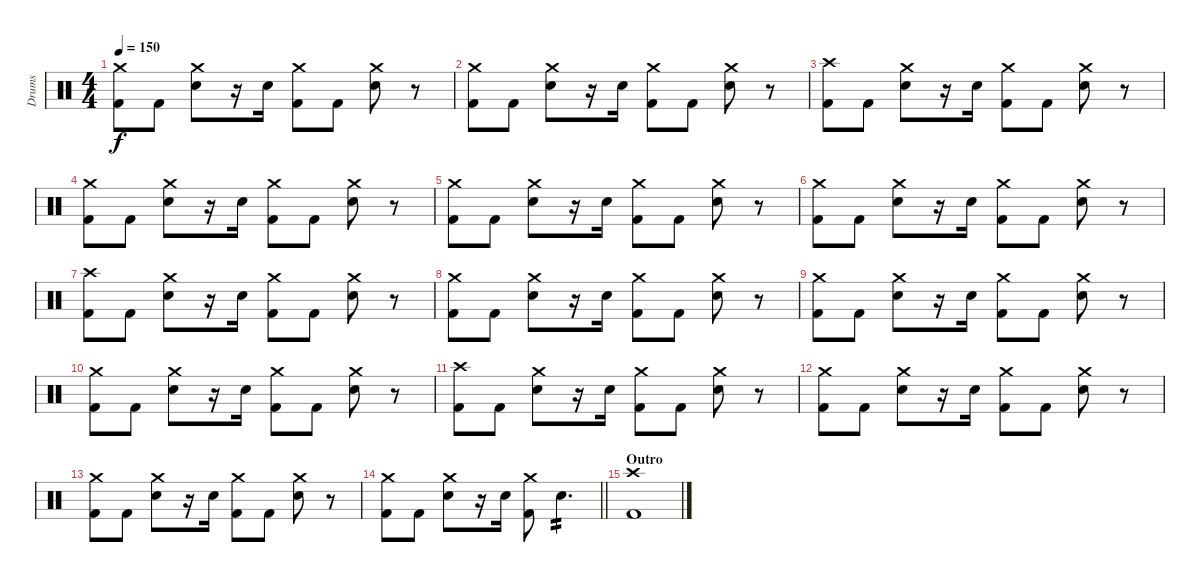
\track ("Drums" "Drums") {instrument percussion}
\staff {score}
\articulation defaults
\ts (4 4)
\tempo 150
\clef neutral
\ks c
("Crash medium (hit)" "Kick (hit) 2").8{dy f} "Kick (hit) 2".8 ("Crash medium (hit)" "Electric Snare (hit)").8 r.16 "Electric Snare (hit)".16 ("Crash medium (hit)" "Kick (hit) 2").8 "Kick (hit) 2".8 ("Crash medium (hit)" "Electric Snare (hit)").8 r.8 |
("Crash medium (hit)" "Kick (hit) 2").8 "Kick (hit) 2".8 ("Crash medium (hit)" "Electric Snare (hit)").8 r.16 "Electric Snare (hit)".16 ("Crash medium (hit)" "Kick (hit) 2").8 "Kick (hit) 2".8 ("Crash medium (hit)" "Electric Snare (hit)").8 r.8 |
("Crash high (hit)" "Kick (hit) 2").8 "Kick (hit) 2".8 ("Crash medium (hit)" "Electric Snare (hit)").8 r.16 "Electric Snare (hit)".16 ("Crash medium (hit)" "Kick (hit) 2").8 "Kick (hit) 2".8 ("Crash medium (hit)" "Electric Snare (hit)").8 r.8 |
("Crash medium (hit)" "Kick (hit) 2").8 "Kick (hit) 2".8 ("Crash medium (hit)" "Electric Snare (hit)").8 r.16 "Electric Snare (hit)".16 ("Crash medium (hit)" "Kick (hit) 2").8 "Kick (hit) 2".8 ("Crash medium (hit)" "Electric Snare (hit)").8 r.8 |
("Crash medium (hit)" "Kick (hit) 2").8 "Kick (hit) 2".8 ("Crash medium (hit)" "Electric Snare (hit)").8 r.16 "Electric Snare (hit)".16 ("Crash medium (hit)" "Kick (hit) 2").8 "Kick (hit) 2".8 ("Crash medium (hit)" "Electric Snare (hit)").8 r.8 |
("Crash medium (hit)" "Kick (hit) 2").8 "Kick (hit) 2".8 ("Crash medium (hit)" "Electric Snare (hit)").8 r.16 "Electric Snare (hit)".16 ("Crash medium (hit)" "Kick (hit) 2").8 "Kick (hit) 2".8 ("Crash medium (hit)" "Electric Snare (hit)").8 r.8 |
("Crash high (hit)" "Kick (hit) 2").8 "Kick (hit) 2".8 ("Crash medium (hit)" "Electric Snare (hit)").8 r.16 "Electric Snare (hit)".16 ("Crash medium (hit)" "Kick (hit) 2").8 "Kick (hit) 2".8 ("Crash medium (hit)" "Electric Snare (hit)").8 r.8 |
("Crash medium (hit)" "Kick (hit) 2").8 "Kick (hit) 2".8 ("Crash medium (hit)" "Electric Snare (hit)").8 r.16 "Electric Snare (hit)".16 ("Crash medium (hit)" "Kick (hit) 2").8 "Kick (hit) 2".8 ("Crash medium (hit)" "Electric Snare (hit)").8 r.8 |
("Crash medium (hit)" "Kick (hit) 2").8 "Kick (hit) 2".8 ("Crash medium (hit)" "Electric Snare (hit)").8 r.16 "Electric Snare (hit)".16 ("Crash medium (hit)" "Kick (hit) 2").8 "Kick (hit) 2".8 ("Crash medium (hit)" "Electric Snare (hit)").8 r.8 |
("Crash medium (hit)" "Kick (hit) 2").8 "Kick (hit) 2".8 ("Crash medium (hit)" "Electric Snare (hit)").8 r.16 "Electric Snare (hit)".16 ("Crash medium (hit)" "Kick (hit) 2").8 "Kick (hit) 2".8 ("Crash medium (hit)" "Electric Snare (hit)").8 r.8 |
("Crash high (hit)" "Kick (hit) 2").8 "Kick (hit) 2".8 ("Crash medium (hit)" "Electric Snare (hit)").8 r.16 "Electric Snare (hit)".16 ("Crash medium (hit)" "Kick (hit) 2").8 "Kick (hit) 2".8 ("Crash medium (hit)" "Electric Snare (hit)").8 r.8 |
("Crash medium (hit)" "Kick (hit) 2").8 "Kick (hit) 2".8 ("Crash medium (hit)" "Electric Snare (hit)").8 r.16 "Electric Snare (hit)".16 ("Crash medium (hit)" "Kick (hit) 2").8 "Kick (hit) 2".8 ("Crash medium (hit)" "Electric Snare (hit)").8 r.8 |
("Crash medium (hit)" "Kick (hit) 2").8 "Kick (hit) 2".8 ("Crash medium (hit)" "Electric Snare (hit)").8 r.16 "Electric Snare (hit)".16 ("Crash medium (hit)" "Kick (hit) 2").8 "Kick (hit) 2".8 ("Crash medium (hit)" "Electric Snare (hit)").8 r.8 |
\barLineRight lightlight
("Crash medium (hit)" "Kick (hit) 2").8 "Kick (hit) 2".8 ("Crash medium (hit)" "Electric Snare (hit)").8 r.16 "Electric Snare (hit)".16 ("Crash medium (hit)" "Kick (hit) 2").8 "Electric Snare (hit)".4{d tp 2} |
\section ("" "Outro")
("Crash high (hit)" "Kick (hit) 2").1
